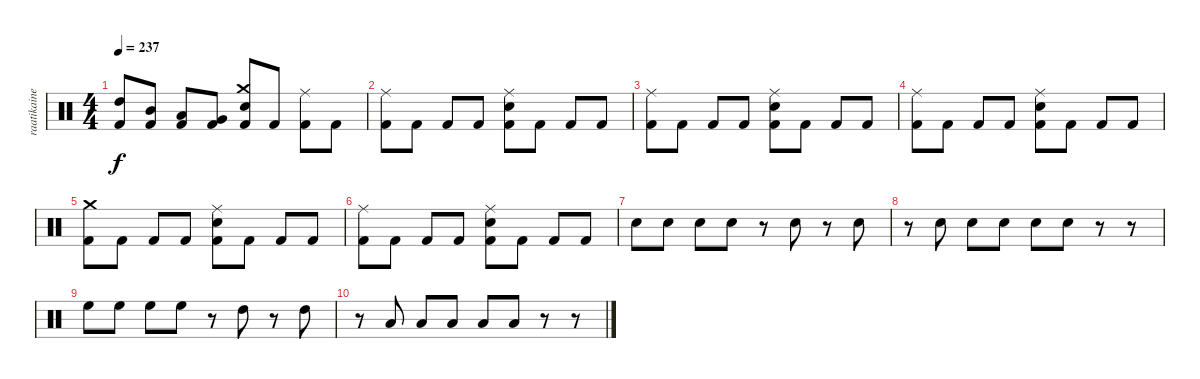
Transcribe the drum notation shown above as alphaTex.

\track ("raatikainen" "raatikaine") {instrument percussion}
\staff {score}
\articulation defaults
\ts (4 4)
\tempo 237
\clef neutral
\ks c
("High Tom (hit)" "Kick (hit) 2").8{dy f} ("Mid Tom (hit)" "Kick (hit) 2").8 ("Low Tom (hit)" "Kick (hit) 2").8 ("Very Low Tom (hit)" "Kick (hit) 2").8 ("Crash medium (hit)" "Snare (hit) 2" "Kick (hit) 2").8 "Kick (hit) 2".8 ("Ride (middle)" "Kick (hit) 2").8 "Kick (hit) 2".8 |
("Ride (middle)" "Kick (hit) 2").8 "Kick (hit) 2".8 "Kick (hit) 2".8 "Kick (hit) 2".8 ("Ride (middle)" "Snare (hit) 2" "Kick (hit) 2").8 "Kick (hit) 2".8 "Kick (hit) 2".8 "Kick (hit) 2".8 |
("Ride (middle)" "Kick (hit) 2").8 "Kick (hit) 2".8 "Kick (hit) 2".8 "Kick (hit) 2".8 ("Ride (middle)" "Snare (hit) 2" "Kick (hit) 2").8 "Kick (hit) 2".8 "Kick (hit) 2".8 "Kick (hit) 2".8 |
("Ride (middle)" "Kick (hit) 2").8 "Kick (hit) 2".8 "Kick (hit) 2".8 "Kick (hit) 2".8 ("Ride (middle)" "Snare (hit) 2" "Kick (hit) 2").8 "Kick (hit) 2".8 "Kick (hit) 2".8 "Kick (hit) 2".8 |
("Crash medium (hit)" "Kick (hit) 2").8 "Kick (hit) 2".8 "Kick (hit) 2".8 "Kick (hit) 2".8 ("Ride (middle)" "Snare (hit) 2" "Kick (hit) 2").8 "Kick (hit) 2".8 "Kick (hit) 2".8 "Kick (hit) 2".8 |
("Ride (middle)" "Kick (hit) 2").8 "Kick (hit) 2".8 "Kick (hit) 2".8 "Kick (hit) 2".8 ("Ride (middle)" "Snare (hit) 2" "Kick (hit) 2").8 "Kick (hit) 2".8 "Kick (hit) 2".8 "Kick (hit) 2".8 |
"Snare (hit) 2".8 "Snare (hit) 2".8 "Snare (hit) 2".8 "Snare (hit) 2".8 r.8 "Snare (hit) 2".8 r.8 "Snare (hit) 2".8 |
r.8 "Snare (hit) 2".8 "Snare (hit) 2".8 "Snare (hit) 2".8 "Snare (hit) 2".8 "Snare (hit) 2".8 r.8 r.8 |
"High Floor Tom (hit)".8 "High Floor Tom (hit)".8 "High Floor Tom (hit)".8 "High Floor Tom (hit)".8 r.8 "High Tom (hit)".8 r.8 "High Tom (hit)".8 |
r.8 "Low Tom (hit)".8 "Low Tom (hit)".8 "Low Tom (hit)".8 "Low Tom (hit)".8 "Low Tom (hit)".8 r.8 r.8
